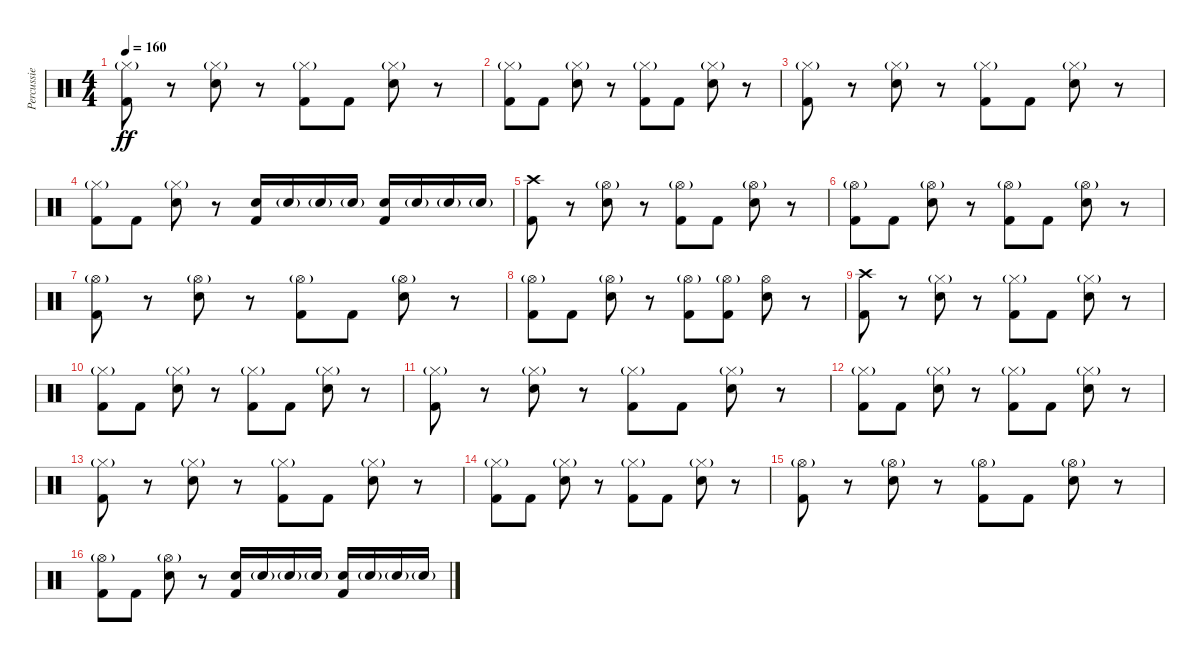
\track ("Percussie" "Percussie") {instrument percussion}
\staff {score}
\articulation defaults
\ts (4 4)
\tempo 160
\clef neutral
\ks c
("Hi-Hat (closed)"{g} "Kick (hit) 2").8{dy ff} r.8 ("Hi-Hat (closed)"{g} "Snare (hit) 2").8 r.8 ("Hi-Hat (closed)"{g} "Kick (hit) 2").8 "Kick (hit) 2".8 ("Hi-Hat (closed)"{g} "Snare (hit) 2").8 r.8 |
("Hi-Hat (closed)"{g} "Kick (hit) 2").8 "Kick (hit) 2".8 ("Hi-Hat (closed)"{g} "Snare (hit) 2").8 r.8 ("Hi-Hat (closed)"{g} "Kick (hit) 2").8 "Kick (hit) 2".8 ("Hi-Hat (closed)"{g} "Snare (hit) 2").8 r.8 |
("Hi-Hat (closed)"{g} "Kick (hit) 2").8 r.8 ("Hi-Hat (closed)"{g} "Snare (hit) 2").8 r.8 ("Hi-Hat (closed)"{g} "Kick (hit) 2").8 "Kick (hit) 2".8 ("Hi-Hat (closed)"{g} "Snare (hit) 2").8 r.8 |
("Hi-Hat (closed)"{g} "Kick (hit) 2").8 "Kick (hit) 2".8 ("Hi-Hat (closed)"{g} "Snare (hit) 2").8 r.8 ("Snare (hit) 2" "Kick (hit) 2").16 "Snare (hit) 2"{g}.16 "Snare (hit) 2"{g}.16 "Snare (hit) 2"{g}.16 ("Snare (hit) 2" "Kick (hit) 2").16 "Snare (hit) 2"{g}.16 "Snare (hit) 2"{g}.16 "Snare (hit) 2"{g}.16 |
("Crash high (hit)" "Kick (hit) 2").8 r.8 ("Hi-Hat (open)"{g} "Snare (hit) 2").8 r.8 ("Hi-Hat (open)"{g} "Kick (hit) 2").8 "Kick (hit) 2".8 ("Hi-Hat (open)"{g} "Snare (hit) 2").8 r.8 |
("Hi-Hat (open)"{g} "Kick (hit) 2").8 "Kick (hit) 2".8 ("Hi-Hat (open)"{g} "Snare (hit) 2").8 r.8 ("Hi-Hat (open)"{g} "Kick (hit) 2").8 "Kick (hit) 2".8 ("Hi-Hat (open)"{g} "Snare (hit) 2").8 r.8 |
("Hi-Hat (open)"{g} "Kick (hit) 2").8 r.8 ("Hi-Hat (open)"{g} "Snare (hit) 2").8 r.8 ("Hi-Hat (open)"{g} "Kick (hit) 2").8 "Kick (hit) 2".8 ("Hi-Hat (open)"{g} "Snare (hit) 2").8 r.8 |
("Hi-Hat (open)"{g} "Kick (hit) 2").8 "Kick (hit) 2".8 ("Hi-Hat (open)"{g} "Snare (hit) 2").8 r.8 ("Hi-Hat (open)"{g} "Kick (hit) 2").8 ("Hi-Hat (open)"{g} "Kick (hit) 2").8 ("Hi-Hat (open)" "Snare (hit) 2").8 r.8 |
("Crash high (hit)" "Kick (hit) 2").8 r.8 ("Hi-Hat (closed)"{g} "Snare (hit) 2").8 r.8 ("Hi-Hat (closed)"{g} "Kick (hit) 2").8 "Kick (hit) 2".8 ("Hi-Hat (closed)"{g} "Snare (hit) 2").8 r.8 |
("Hi-Hat (closed)"{g} "Kick (hit) 2").8 "Kick (hit) 2".8 ("Hi-Hat (closed)"{g} "Snare (hit) 2").8 r.8 ("Hi-Hat (closed)"{g} "Kick (hit) 2").8 "Kick (hit) 2".8 ("Hi-Hat (closed)"{g} "Snare (hit) 2").8 r.8 |
("Hi-Hat (closed)"{g} "Kick (hit) 2").8 r.8 ("Hi-Hat (closed)"{g} "Snare (hit) 2").8 r.8 ("Hi-Hat (closed)"{g} "Kick (hit) 2").8 "Kick (hit) 2".8 ("Hi-Hat (closed)"{g} "Snare (hit) 2").8 r.8 |
("Hi-Hat (closed)"{g} "Kick (hit) 2").8 "Kick (hit) 2".8 ("Hi-Hat (closed)"{g} "Snare (hit) 2").8 r.8 ("Hi-Hat (closed)"{g} "Kick (hit) 2").8 "Kick (hit) 2".8 ("Hi-Hat (closed)"{g} "Snare (hit) 2").8 r.8 |
("Hi-Hat (closed)"{g} "Kick (hit) 2").8 r.8 ("Hi-Hat (closed)"{g} "Snare (hit) 2").8 r.8 ("Hi-Hat (closed)"{g} "Kick (hit) 2").8 "Kick (hit) 2".8 ("Hi-Hat (closed)"{g} "Snare (hit) 2").8 r.8 |
("Hi-Hat (closed)"{g} "Kick (hit) 2").8 "Kick (hit) 2".8 ("Hi-Hat (closed)"{g} "Snare (hit) 2").8 r.8 ("Hi-Hat (closed)"{g} "Kick (hit) 2").8 "Kick (hit) 2".8 ("Hi-Hat (closed)"{g} "Snare (hit) 2").8 r.8 |
("Hi-Hat (open)"{g} "Kick (hit) 2").8 r.8 ("Hi-Hat (open)"{g} "Snare (hit) 2").8 r.8 ("Hi-Hat (open)"{g} "Kick (hit) 2").8 "Kick (hit) 2".8 ("Hi-Hat (open)"{g} "Snare (hit) 2").8 r.8 |
("Hi-Hat (open)"{g} "Kick (hit) 2").8 "Kick (hit) 2".8 ("Hi-Hat (open)"{g} "Snare (hit) 2").8 r.8 ("Snare (hit) 2" "Kick (hit) 2").16 "Snare (hit) 2"{g}.16 "Snare (hit) 2"{g}.16 "Snare (hit) 2"{g}.16 ("Snare (hit) 2" "Kick (hit) 2").16 "Snare (hit) 2"{g}.16 "Snare (hit) 2"{g}.16 "Snare (hit) 2"{g}.16
